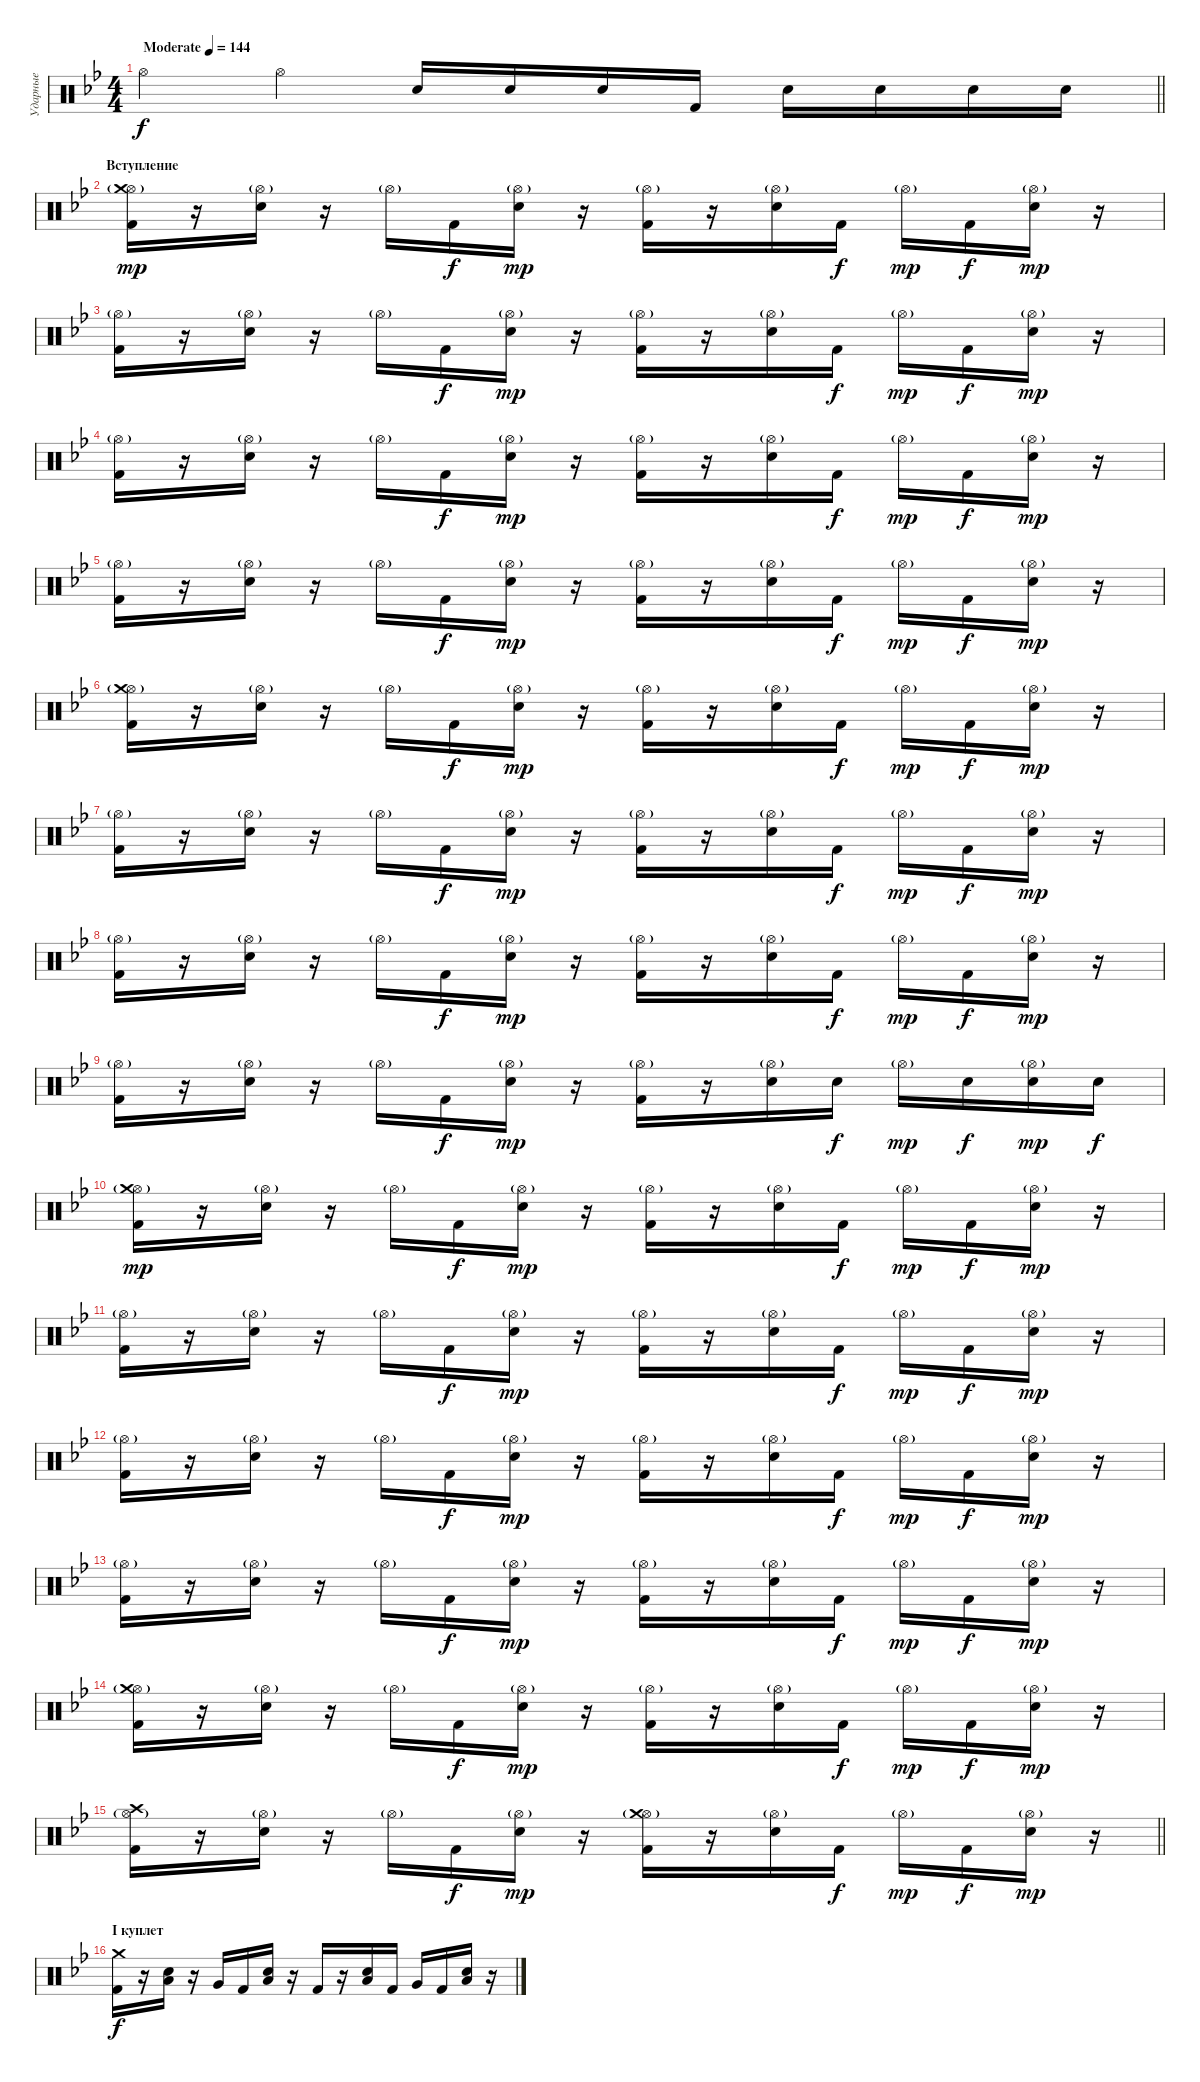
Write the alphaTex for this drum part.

\track ("Ударные" "Ударные") {instrument percussion}
\staff {score}
\articulation defaults
\ts (4 4)
\section ("" "")
\tempo (144 "Moderate")
\clef neutral
\barLineRight lightlight
\ks gminor "Hi-Hat (open)".4{dy f} "Hi-Hat (open)".4 "Electric Snare (hit)".16 "Electric Snare (hit)".16 "Electric Snare (hit)".16 "Kick (hit) 2".16 "Electric Snare (hit)".16 "Electric Snare (hit)".16 "Electric Snare (hit)".16 "Electric Snare (hit)".16
|
\section ("" "Вступление")
("Hi-Hat (open)"{g} "Crash medium (hit)" "Kick (hit) 2").16{dy mp} r.16 ("Hi-Hat (open)"{g} "Electric Snare (hit)").16 r.16 "Hi-Hat (open)"{g}.16 "Kick (hit) 2".16{dy f} ("Hi-Hat (open)"{g} "Electric Snare (hit)").16{dy mp} r.16 ("Hi-Hat (open)"{g} "Kick (hit) 2").16 r.16 ("Hi-Hat (open)"{g} "Electric Snare (hit)").16 "Kick (hit) 2".16{dy f} "Hi-Hat (open)"{g}.16{dy mp} "Kick (hit) 2".16{dy f} ("Hi-Hat (open)"{g} "Electric Snare (hit)").16{dy mp} r.16 |
("Hi-Hat (open)"{g} "Kick (hit) 2").16 r.16 ("Hi-Hat (open)"{g} "Electric Snare (hit)").16 r.16 "Hi-Hat (open)"{g}.16 "Kick (hit) 2".16{dy f} ("Hi-Hat (open)"{g} "Electric Snare (hit)").16{dy mp} r.16 ("Hi-Hat (open)"{g} "Kick (hit) 2").16 r.16 ("Hi-Hat (open)"{g} "Electric Snare (hit)").16 "Kick (hit) 2".16{dy f} "Hi-Hat (open)"{g}.16{dy mp} "Kick (hit) 2".16{dy f} ("Hi-Hat (open)"{g} "Electric Snare (hit)").16{dy mp} r.16 |
("Hi-Hat (open)"{g} "Kick (hit) 2").16 r.16 ("Hi-Hat (open)"{g} "Electric Snare (hit)").16 r.16 "Hi-Hat (open)"{g}.16 "Kick (hit) 2".16{dy f} ("Hi-Hat (open)"{g} "Electric Snare (hit)").16{dy mp} r.16 ("Hi-Hat (open)"{g} "Kick (hit) 2").16 r.16 ("Hi-Hat (open)"{g} "Electric Snare (hit)").16 "Kick (hit) 2".16{dy f} "Hi-Hat (open)"{g}.16{dy mp} "Kick (hit) 2".16{dy f} ("Hi-Hat (open)"{g} "Electric Snare (hit)").16{dy mp} r.16 |
("Hi-Hat (open)"{g} "Kick (hit) 2").16 r.16 ("Hi-Hat (open)"{g} "Electric Snare (hit)").16 r.16 "Hi-Hat (open)"{g}.16 "Kick (hit) 2".16{dy f} ("Hi-Hat (open)"{g} "Electric Snare (hit)").16{dy mp} r.16 ("Hi-Hat (open)"{g} "Kick (hit) 2").16 r.16 ("Hi-Hat (open)"{g} "Electric Snare (hit)").16 "Kick (hit) 2".16{dy f} "Hi-Hat (open)"{g}.16{dy mp} "Kick (hit) 2".16{dy f} ("Hi-Hat (open)"{g} "Electric Snare (hit)").16{dy mp} r.16 |
("Hi-Hat (open)"{g} "Crash medium (hit)" "Kick (hit) 2").16 r.16 ("Hi-Hat (open)"{g} "Electric Snare (hit)").16 r.16 "Hi-Hat (open)"{g}.16 "Kick (hit) 2".16{dy f} ("Hi-Hat (open)"{g} "Electric Snare (hit)").16{dy mp} r.16 ("Hi-Hat (open)"{g} "Kick (hit) 2").16 r.16 ("Hi-Hat (open)"{g} "Electric Snare (hit)").16 "Kick (hit) 2".16{dy f} "Hi-Hat (open)"{g}.16{dy mp} "Kick (hit) 2".16{dy f} ("Hi-Hat (open)"{g} "Electric Snare (hit)").16{dy mp} r.16 |
("Hi-Hat (open)"{g} "Kick (hit) 2").16 r.16 ("Hi-Hat (open)"{g} "Electric Snare (hit)").16 r.16 "Hi-Hat (open)"{g}.16 "Kick (hit) 2".16{dy f} ("Hi-Hat (open)"{g} "Electric Snare (hit)").16{dy mp} r.16 ("Hi-Hat (open)"{g} "Kick (hit) 2").16 r.16 ("Hi-Hat (open)"{g} "Electric Snare (hit)").16 "Kick (hit) 2".16{dy f} "Hi-Hat (open)"{g}.16{dy mp} "Kick (hit) 2".16{dy f} ("Hi-Hat (open)"{g} "Electric Snare (hit)").16{dy mp} r.16 |
("Hi-Hat (open)"{g} "Kick (hit) 2").16 r.16 ("Hi-Hat (open)"{g} "Electric Snare (hit)").16 r.16 "Hi-Hat (open)"{g}.16 "Kick (hit) 2".16{dy f} ("Hi-Hat (open)"{g} "Electric Snare (hit)").16{dy mp} r.16 ("Hi-Hat (open)"{g} "Kick (hit) 2").16 r.16 ("Hi-Hat (open)"{g} "Electric Snare (hit)").16 "Kick (hit) 2".16{dy f} "Hi-Hat (open)"{g}.16{dy mp} "Kick (hit) 2".16{dy f} ("Hi-Hat (open)"{g} "Electric Snare (hit)").16{dy mp} r.16 |
("Hi-Hat (open)"{g} "Kick (hit) 2").16 r.16 ("Hi-Hat (open)"{g} "Electric Snare (hit)").16 r.16 "Hi-Hat (open)"{g}.16 "Kick (hit) 2".16{dy f} ("Hi-Hat (open)"{g} "Electric Snare (hit)").16{dy mp} r.16 ("Hi-Hat (open)"{g} "Kick (hit) 2").16 r.16 ("Hi-Hat (open)"{g} "Electric Snare (hit)").16 "Electric Snare (hit)".16{dy f} "Hi-Hat (open)"{g}.16{dy mp} "Electric Snare (hit)".16{dy f} ("Hi-Hat (open)"{g} "Electric Snare (hit)").16{dy mp} "Electric Snare (hit)".16{dy f} |
("Hi-Hat (open)"{g} "Crash medium (hit)" "Kick (hit) 2").16{dy mp} r.16 ("Hi-Hat (open)"{g} "Electric Snare (hit)").16 r.16 "Hi-Hat (open)"{g}.16 "Kick (hit) 2".16{dy f} ("Hi-Hat (open)"{g} "Electric Snare (hit)").16{dy mp} r.16 ("Hi-Hat (open)"{g} "Kick (hit) 2").16 r.16 ("Hi-Hat (open)"{g} "Electric Snare (hit)").16 "Kick (hit) 2".16{dy f} "Hi-Hat (open)"{g}.16{dy mp} "Kick (hit) 2".16{dy f} ("Hi-Hat (open)"{g} "Electric Snare (hit)").16{dy mp} r.16 |
("Hi-Hat (open)"{g} "Kick (hit) 2").16 r.16 ("Hi-Hat (open)"{g} "Electric Snare (hit)").16 r.16 "Hi-Hat (open)"{g}.16 "Kick (hit) 2".16{dy f} ("Hi-Hat (open)"{g} "Electric Snare (hit)").16{dy mp} r.16 ("Hi-Hat (open)"{g} "Kick (hit) 2").16 r.16 ("Hi-Hat (open)"{g} "Electric Snare (hit)").16 "Kick (hit) 2".16{dy f} "Hi-Hat (open)"{g}.16{dy mp} "Kick (hit) 2".16{dy f} ("Hi-Hat (open)"{g} "Electric Snare (hit)").16{dy mp} r.16 |
("Hi-Hat (open)"{g} "Kick (hit) 2").16 r.16 ("Hi-Hat (open)"{g} "Electric Snare (hit)").16 r.16 "Hi-Hat (open)"{g}.16 "Kick (hit) 2".16{dy f} ("Hi-Hat (open)"{g} "Electric Snare (hit)").16{dy mp} r.16 ("Hi-Hat (open)"{g} "Kick (hit) 2").16 r.16 ("Hi-Hat (open)"{g} "Electric Snare (hit)").16 "Kick (hit) 2".16{dy f} "Hi-Hat (open)"{g}.16{dy mp} "Kick (hit) 2".16{dy f} ("Hi-Hat (open)"{g} "Electric Snare (hit)").16{dy mp} r.16 |
("Hi-Hat (open)"{g} "Kick (hit) 2").16 r.16 ("Hi-Hat (open)"{g} "Electric Snare (hit)").16 r.16 "Hi-Hat (open)"{g}.16 "Kick (hit) 2".16{dy f} ("Hi-Hat (open)"{g} "Electric Snare (hit)").16{dy mp} r.16 ("Hi-Hat (open)"{g} "Kick (hit) 2").16 r.16 ("Hi-Hat (open)"{g} "Electric Snare (hit)").16 "Kick (hit) 2".16{dy f} "Hi-Hat (open)"{g}.16{dy mp} "Kick (hit) 2".16{dy f} ("Hi-Hat (open)"{g} "Electric Snare (hit)").16{dy mp} r.16 |
("Hi-Hat (open)"{g} "Crash medium (hit)" "Kick (hit) 2").16 r.16 ("Hi-Hat (open)"{g} "Electric Snare (hit)").16 r.16 "Hi-Hat (open)"{g}.16 "Kick (hit) 2".16{dy f} ("Hi-Hat (open)"{g} "Electric Snare (hit)").16{dy mp} r.16 ("Hi-Hat (open)"{g} "Kick (hit) 2").16 r.16 ("Hi-Hat (open)"{g} "Electric Snare (hit)").16 "Kick (hit) 2".16{dy f} "Hi-Hat (open)"{g}.16{dy mp} "Kick (hit) 2".16{dy f} ("Hi-Hat (open)"{g} "Electric Snare (hit)").16{dy mp} r.16 |
\barLineRight lightlight
("Hi-Hat (open)"{g} "Kick (hit) 2" "Crash high (hit)").16 r.16 ("Hi-Hat (open)"{g} "Electric Snare (hit)").16 r.16 "Hi-Hat (open)"{g}.16 "Kick (hit) 2".16{dy f} ("Hi-Hat (open)"{g} "Electric Snare (hit)").16{dy mp} r.16 ("Hi-Hat (open)"{g} "Kick (hit) 2" "Crash medium (hit)").16 r.16 ("Hi-Hat (open)"{g} "Electric Snare (hit)").16 "Kick (hit) 2".16{dy f} "Hi-Hat (open)"{g}.16{dy mp} "Kick (hit) 2".16{dy f} ("Hi-Hat (open)"{g} "Electric Snare (hit)").16{dy mp} r.16 |
\section ("" "I куплет")
("Crash medium (hit)" "Kick (hit) 2").16{dy f} r.16 ("Electric Snare (hit)" "Low Tom (hit)").16 r.16 "Very Low Tom (hit)".16 "Kick (hit) 2".16 ("Electric Snare (hit)" "Low Tom (hit)").16 r.16 "Kick (hit) 2".16 r.16 ("Electric Snare (hit)" "Low Tom (hit)").16 "Kick (hit) 2".16 "Very Low Tom (hit)".16 "Kick (hit) 2".16 ("Electric Snare (hit)" "Low Tom (hit)").16 r.16
